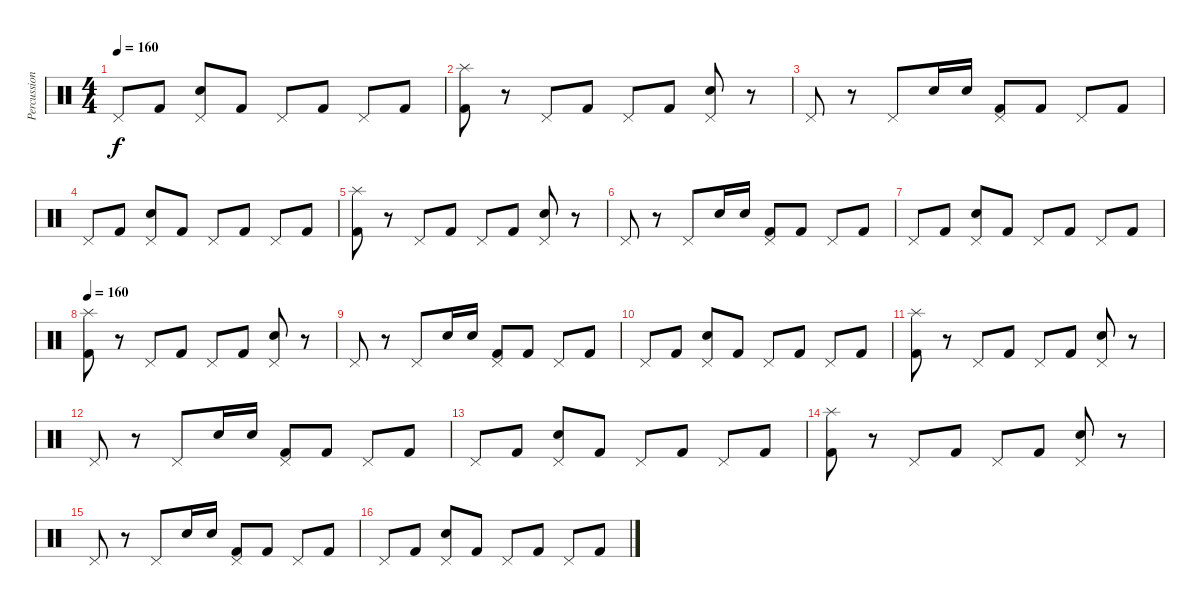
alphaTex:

\track ("Percussion" "Percussion") {instrument percussion}
\staff {score}
\articulation defaults
\ts (4 4)
\tempo 160
\clef neutral
\ks c "Pedal Hi-Hat (hit)".8{dy f} "Kick (hit) 2".8
("Pedal Hi-Hat (hit)" "Electric Snare (hit)").8 "Kick (hit) 2".8 "Pedal Hi-Hat (hit)".8 "Kick (hit) 2".8 "Pedal Hi-Hat (hit)".8 "Kick (hit) 2".8 |
("Splash (hit)" "Kick (hit) 2").8 r.8 "Pedal Hi-Hat (hit)".8 "Kick (hit) 2".8 "Pedal Hi-Hat (hit)".8 "Kick (hit) 2".8 ("Pedal Hi-Hat (hit)" "Electric Snare (hit)").8 r.8 |
"Pedal Hi-Hat (hit)".8 r.8 "Pedal Hi-Hat (hit)".8 "Electric Snare (hit)".16 "Electric Snare (hit)".16 ("Pedal Hi-Hat (hit)" "Kick (hit) 2").8 "Kick (hit) 2".8 "Pedal Hi-Hat (hit)".8 "Kick (hit) 2".8 |
"Pedal Hi-Hat (hit)".8 "Kick (hit) 2".8 ("Pedal Hi-Hat (hit)" "Electric Snare (hit)").8 "Kick (hit) 2".8 "Pedal Hi-Hat (hit)".8 "Kick (hit) 2".8 "Pedal Hi-Hat (hit)".8 "Kick (hit) 2".8 |
("Splash (hit)" "Kick (hit) 2").8 r.8 "Pedal Hi-Hat (hit)".8 "Kick (hit) 2".8 "Pedal Hi-Hat (hit)".8 "Kick (hit) 2".8 ("Pedal Hi-Hat (hit)" "Electric Snare (hit)").8 r.8 |
"Pedal Hi-Hat (hit)".8 r.8 "Pedal Hi-Hat (hit)".8 "Electric Snare (hit)".16 "Electric Snare (hit)".16 ("Pedal Hi-Hat (hit)" "Kick (hit) 2").8 "Kick (hit) 2".8 "Pedal Hi-Hat (hit)".8 "Kick (hit) 2".8 |
"Pedal Hi-Hat (hit)".8 "Kick (hit) 2".8 ("Pedal Hi-Hat (hit)" "Electric Snare (hit)").8 "Kick (hit) 2".8 "Pedal Hi-Hat (hit)".8 "Kick (hit) 2".8 "Pedal Hi-Hat (hit)".8 "Kick (hit) 2".8 |
\tempo 160
("Splash (hit)" "Kick (hit) 2").8 r.8 "Pedal Hi-Hat (hit)".8 "Kick (hit) 2".8 "Pedal Hi-Hat (hit)".8 "Kick (hit) 2".8 ("Pedal Hi-Hat (hit)" "Electric Snare (hit)").8 r.8 |
"Pedal Hi-Hat (hit)".8 r.8 "Pedal Hi-Hat (hit)".8 "Electric Snare (hit)".16 "Electric Snare (hit)".16 ("Pedal Hi-Hat (hit)" "Kick (hit) 2").8 "Kick (hit) 2".8 "Pedal Hi-Hat (hit)".8 "Kick (hit) 2".8 |
"Pedal Hi-Hat (hit)".8 "Kick (hit) 2".8 ("Pedal Hi-Hat (hit)" "Electric Snare (hit)").8 "Kick (hit) 2".8 "Pedal Hi-Hat (hit)".8 "Kick (hit) 2".8 "Pedal Hi-Hat (hit)".8 "Kick (hit) 2".8 |
("Splash (hit)" "Kick (hit) 2").8 r.8 "Pedal Hi-Hat (hit)".8 "Kick (hit) 2".8 "Pedal Hi-Hat (hit)".8 "Kick (hit) 2".8 ("Pedal Hi-Hat (hit)" "Electric Snare (hit)").8 r.8 |
"Pedal Hi-Hat (hit)".8 r.8 "Pedal Hi-Hat (hit)".8 "Electric Snare (hit)".16 "Electric Snare (hit)".16 ("Pedal Hi-Hat (hit)" "Kick (hit) 2").8 "Kick (hit) 2".8 "Pedal Hi-Hat (hit)".8 "Kick (hit) 2".8 |
"Pedal Hi-Hat (hit)".8 "Kick (hit) 2".8 ("Pedal Hi-Hat (hit)" "Electric Snare (hit)").8 "Kick (hit) 2".8 "Pedal Hi-Hat (hit)".8 "Kick (hit) 2".8 "Pedal Hi-Hat (hit)".8 "Kick (hit) 2".8 |
("Splash (hit)" "Kick (hit) 2").8 r.8 "Pedal Hi-Hat (hit)".8 "Kick (hit) 2".8 "Pedal Hi-Hat (hit)".8 "Kick (hit) 2".8 ("Pedal Hi-Hat (hit)" "Electric Snare (hit)").8 r.8 |
"Pedal Hi-Hat (hit)".8 r.8 "Pedal Hi-Hat (hit)".8 "Electric Snare (hit)".16 "Electric Snare (hit)".16 ("Pedal Hi-Hat (hit)" "Kick (hit) 2").8 "Kick (hit) 2".8 "Pedal Hi-Hat (hit)".8 "Kick (hit) 2".8 |
"Pedal Hi-Hat (hit)".8 "Kick (hit) 2".8 ("Pedal Hi-Hat (hit)" "Electric Snare (hit)").8 "Kick (hit) 2".8 "Pedal Hi-Hat (hit)".8 "Kick (hit) 2".8 "Pedal Hi-Hat (hit)".8 "Kick (hit) 2".8
